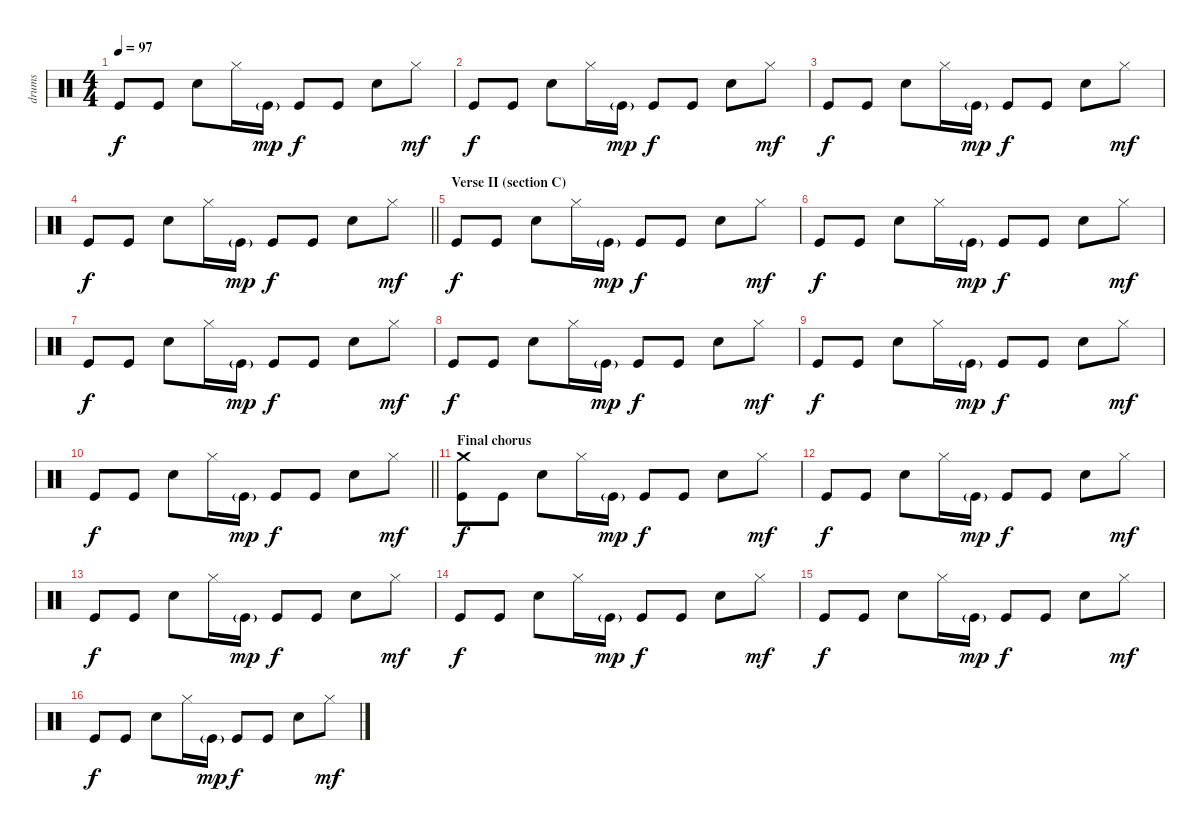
\track ("drums" "drums") {instrument percussion}
\staff {score}
\articulation defaults
\ts (4 4)
\tempo 97
\clef neutral
\ks c "Kick (hit)".8{dy f} "Kick (hit)".8 "Electric Snare (hit)".8 "Hi-Hat (closed)".16 "Kick (hit)"{g}.16{dy mp} "Kick (hit)".8{dy f} "Kick (hit)".8 "Electric Snare (hit)".8 "Hi-Hat (closed)".8{dy mf}
|
"Kick (hit)".8{dy f} "Kick (hit)".8 "Electric Snare (hit)".8 "Hi-Hat (closed)".16 "Kick (hit)"{g}.16{dy mp} "Kick (hit)".8{dy f} "Kick (hit)".8 "Electric Snare (hit)".8 "Hi-Hat (closed)".8{dy mf} |
"Kick (hit)".8{dy f} "Kick (hit)".8 "Electric Snare (hit)".8 "Hi-Hat (closed)".16 "Kick (hit)"{g}.16{dy mp} "Kick (hit)".8{dy f} "Kick (hit)".8 "Electric Snare (hit)".8 "Hi-Hat (closed)".8{dy mf} |
\barLineRight lightlight "Kick (hit)".8{dy f} "Kick (hit)".8 "Electric Snare (hit)".8 "Hi-Hat (closed)".16 "Kick (hit)"{g}.16{dy mp} "Kick (hit)".8{dy f} "Kick (hit)".8 "Electric Snare (hit)".8 "Hi-Hat (closed)".8{dy mf}
|
\section ("" "Verse II (section C)")
"Kick (hit)".8{dy f} "Kick (hit)".8 "Electric Snare (hit)".8 "Hi-Hat (closed)".16 "Kick (hit)"{g}.16{dy mp} "Kick (hit)".8{dy f} "Kick (hit)".8 "Electric Snare (hit)".8 "Hi-Hat (closed)".8{dy mf} |
"Kick (hit)".8{dy f} "Kick (hit)".8 "Electric Snare (hit)".8 "Hi-Hat (closed)".16 "Kick (hit)"{g}.16{dy mp} "Kick (hit)".8{dy f} "Kick (hit)".8 "Electric Snare (hit)".8 "Hi-Hat (closed)".8{dy mf} |
"Kick (hit)".8{dy f} "Kick (hit)".8 "Electric Snare (hit)".8 "Hi-Hat (closed)".16 "Kick (hit)"{g}.16{dy mp} "Kick (hit)".8{dy f} "Kick (hit)".8 "Electric Snare (hit)".8 "Hi-Hat (closed)".8{dy mf} |
"Kick (hit)".8{dy f} "Kick (hit)".8 "Electric Snare (hit)".8 "Hi-Hat (closed)".16 "Kick (hit)"{g}.16{dy mp} "Kick (hit)".8{dy f} "Kick (hit)".8 "Electric Snare (hit)".8 "Hi-Hat (closed)".8{dy mf} |
"Kick (hit)".8{dy f} "Kick (hit)".8 "Electric Snare (hit)".8 "Hi-Hat (closed)".16 "Kick (hit)"{g}.16{dy mp} "Kick (hit)".8{dy f} "Kick (hit)".8 "Electric Snare (hit)".8 "Hi-Hat (closed)".8{dy mf} |
\barLineRight lightlight "Kick (hit)".8{dy f} "Kick (hit)".8 "Electric Snare (hit)".8 "Hi-Hat (closed)".16 "Kick (hit)"{g}.16{dy mp} "Kick (hit)".8{dy f} "Kick (hit)".8 "Electric Snare (hit)".8 "Hi-Hat (closed)".8{dy mf}
|
\section ("" "Final chorus")
("Crash medium (hit)" "Kick (hit)").8{dy f} "Kick (hit)".8 "Electric Snare (hit)".8 "Hi-Hat (closed)".16 "Kick (hit)"{g}.16{dy mp} "Kick (hit)".8{dy f} "Kick (hit)".8 "Electric Snare (hit)".8 "Hi-Hat (closed)".8{dy mf} |
"Kick (hit)".8{dy f} "Kick (hit)".8 "Electric Snare (hit)".8 "Hi-Hat (closed)".16 "Kick (hit)"{g}.16{dy mp} "Kick (hit)".8{dy f} "Kick (hit)".8 "Electric Snare (hit)".8 "Hi-Hat (closed)".8{dy mf} |
"Kick (hit)".8{dy f} "Kick (hit)".8 "Electric Snare (hit)".8 "Hi-Hat (closed)".16 "Kick (hit)"{g}.16{dy mp} "Kick (hit)".8{dy f} "Kick (hit)".8 "Electric Snare (hit)".8 "Hi-Hat (closed)".8{dy mf} |
"Kick (hit)".8{dy f} "Kick (hit)".8 "Electric Snare (hit)".8 "Hi-Hat (closed)".16 "Kick (hit)"{g}.16{dy mp} "Kick (hit)".8{dy f} "Kick (hit)".8 "Electric Snare (hit)".8 "Hi-Hat (closed)".8{dy mf} |
"Kick (hit)".8{dy f} "Kick (hit)".8 "Electric Snare (hit)".8 "Hi-Hat (closed)".16 "Kick (hit)"{g}.16{dy mp} "Kick (hit)".8{dy f} "Kick (hit)".8 "Electric Snare (hit)".8 "Hi-Hat (closed)".8{dy mf} |
"Kick (hit)".8{dy f} "Kick (hit)".8 "Electric Snare (hit)".8 "Hi-Hat (closed)".16 "Kick (hit)"{g}.16{dy mp} "Kick (hit)".8{dy f} "Kick (hit)".8 "Electric Snare (hit)".8 "Hi-Hat (closed)".8{dy mf}
